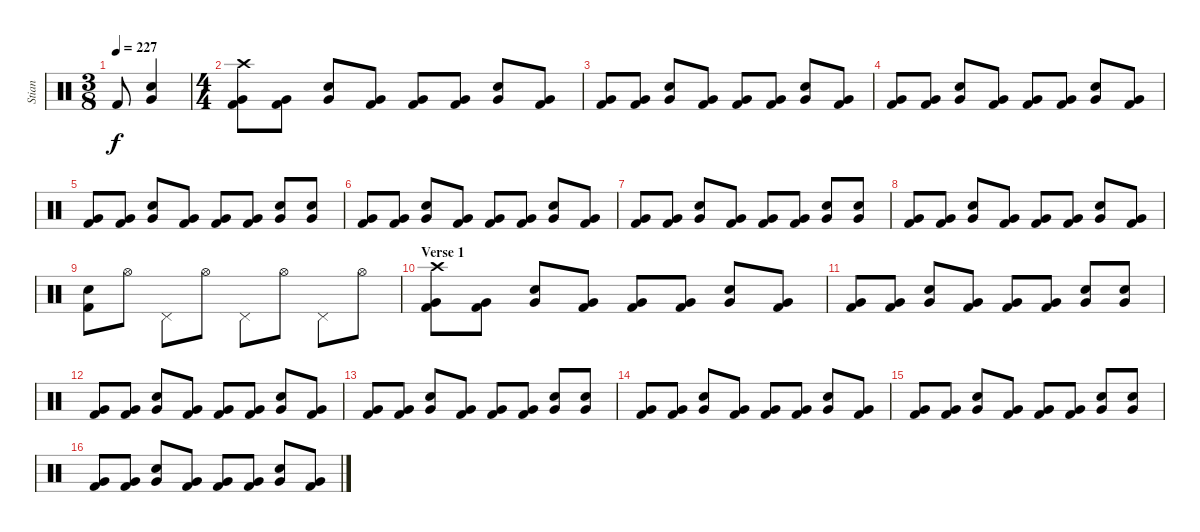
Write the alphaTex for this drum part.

\track ("Stian" "Stian") {instrument percussion}
\staff {score}
\articulation defaults
\ts (3 8)
\tempo 227
\clef neutral
\ks c "Kick (hit) 2".8{dy f}
("Very Low Tom (hit)" "Electric Snare (hit)").4 |
\ts (4 4)
("Very Low Tom (hit)" "Crash high (hit)" "Kick (hit) 2").8 ("Very Low Tom (hit)" "Kick (hit) 2").8 ("Very Low Tom (hit)" "Electric Snare (hit)").8 ("Very Low Tom (hit)" "Kick (hit) 2").8 ("Very Low Tom (hit)" "Kick (hit) 2").8 ("Very Low Tom (hit)" "Kick (hit) 2").8 ("Very Low Tom (hit)" "Electric Snare (hit)").8 ("Very Low Tom (hit)" "Kick (hit) 2").8 |
("Very Low Tom (hit)" "Kick (hit) 2").8 ("Very Low Tom (hit)" "Kick (hit) 2").8 ("Very Low Tom (hit)" "Electric Snare (hit)").8 ("Very Low Tom (hit)" "Kick (hit) 2").8 ("Very Low Tom (hit)" "Kick (hit) 2").8 ("Very Low Tom (hit)" "Kick (hit) 2").8 ("Very Low Tom (hit)" "Electric Snare (hit)").8 ("Very Low Tom (hit)" "Kick (hit) 2").8 |
("Very Low Tom (hit)" "Kick (hit) 2").8 ("Very Low Tom (hit)" "Kick (hit) 2").8 ("Very Low Tom (hit)" "Electric Snare (hit)").8 ("Very Low Tom (hit)" "Kick (hit) 2").8 ("Very Low Tom (hit)" "Kick (hit) 2").8 ("Very Low Tom (hit)" "Kick (hit) 2").8 ("Very Low Tom (hit)" "Electric Snare (hit)").8 ("Very Low Tom (hit)" "Kick (hit) 2").8 |
("Very Low Tom (hit)" "Kick (hit) 2").8 ("Very Low Tom (hit)" "Kick (hit) 2").8 ("Very Low Tom (hit)" "Electric Snare (hit)").8 ("Very Low Tom (hit)" "Kick (hit) 2").8 ("Very Low Tom (hit)" "Kick (hit) 2").8 ("Very Low Tom (hit)" "Kick (hit) 2").8 ("Very Low Tom (hit)" "Electric Snare (hit)").8 ("Very Low Tom (hit)" "Electric Snare (hit)").8 |
("Very Low Tom (hit)" "Kick (hit) 2").8 ("Very Low Tom (hit)" "Kick (hit) 2").8 ("Very Low Tom (hit)" "Electric Snare (hit)").8 ("Very Low Tom (hit)" "Kick (hit) 2").8 ("Very Low Tom (hit)" "Kick (hit) 2").8 ("Very Low Tom (hit)" "Kick (hit) 2").8 ("Very Low Tom (hit)" "Electric Snare (hit)").8 ("Very Low Tom (hit)" "Kick (hit) 2").8 |
("Very Low Tom (hit)" "Kick (hit) 2").8 ("Very Low Tom (hit)" "Kick (hit) 2").8 ("Very Low Tom (hit)" "Electric Snare (hit)").8 ("Very Low Tom (hit)" "Kick (hit) 2").8 ("Very Low Tom (hit)" "Kick (hit) 2").8 ("Very Low Tom (hit)" "Kick (hit) 2").8 ("Very Low Tom (hit)" "Electric Snare (hit)").8 ("Very Low Tom (hit)" "Electric Snare (hit)").8 |
("Very Low Tom (hit)" "Kick (hit) 2").8 ("Very Low Tom (hit)" "Kick (hit) 2").8 ("Very Low Tom (hit)" "Electric Snare (hit)").8 ("Very Low Tom (hit)" "Kick (hit) 2").8 ("Very Low Tom (hit)" "Kick (hit) 2").8 ("Very Low Tom (hit)" "Kick (hit) 2").8 ("Very Low Tom (hit)" "Electric Snare (hit)").8 ("Very Low Tom (hit)" "Kick (hit) 2").8 |
("Electric Snare (hit)" "Kick (hit) 2").8 "Hi-Hat (open)".8 "Pedal Hi-Hat (hit)".8 "Hi-Hat (open)".8 "Pedal Hi-Hat (hit)".8 "Hi-Hat (open)".8 "Pedal Hi-Hat (hit)".8 "Hi-Hat (open)".8 |
\section ("" "Verse 1")
("Very Low Tom (hit)" "Crash high (hit)" "Kick (hit) 2").8 ("Very Low Tom (hit)" "Kick (hit) 2").8 ("Very Low Tom (hit)" "Electric Snare (hit)").8 ("Very Low Tom (hit)" "Kick (hit) 2").8 ("Very Low Tom (hit)" "Kick (hit) 2").8 ("Very Low Tom (hit)" "Kick (hit) 2").8 ("Very Low Tom (hit)" "Electric Snare (hit)").8 ("Very Low Tom (hit)" "Kick (hit) 2").8 |
("Very Low Tom (hit)" "Kick (hit) 2").8 ("Very Low Tom (hit)" "Kick (hit) 2").8 ("Very Low Tom (hit)" "Electric Snare (hit)").8 ("Very Low Tom (hit)" "Kick (hit) 2").8 ("Very Low Tom (hit)" "Kick (hit) 2").8 ("Very Low Tom (hit)" "Kick (hit) 2").8 ("Very Low Tom (hit)" "Electric Snare (hit)").8 ("Very Low Tom (hit)" "Electric Snare (hit)").8 |
("Very Low Tom (hit)" "Kick (hit) 2").8 ("Very Low Tom (hit)" "Kick (hit) 2").8 ("Very Low Tom (hit)" "Electric Snare (hit)").8 ("Very Low Tom (hit)" "Kick (hit) 2").8 ("Very Low Tom (hit)" "Kick (hit) 2").8 ("Very Low Tom (hit)" "Kick (hit) 2").8 ("Very Low Tom (hit)" "Electric Snare (hit)").8 ("Very Low Tom (hit)" "Kick (hit) 2").8 |
("Very Low Tom (hit)" "Kick (hit) 2").8 ("Very Low Tom (hit)" "Kick (hit) 2").8 ("Very Low Tom (hit)" "Electric Snare (hit)").8 ("Very Low Tom (hit)" "Kick (hit) 2").8 ("Very Low Tom (hit)" "Kick (hit) 2").8 ("Very Low Tom (hit)" "Kick (hit) 2").8 ("Very Low Tom (hit)" "Electric Snare (hit)").8 ("Very Low Tom (hit)" "Electric Snare (hit)").8 |
("Very Low Tom (hit)" "Kick (hit) 2").8 ("Very Low Tom (hit)" "Kick (hit) 2").8 ("Very Low Tom (hit)" "Electric Snare (hit)").8 ("Very Low Tom (hit)" "Kick (hit) 2").8 ("Very Low Tom (hit)" "Kick (hit) 2").8 ("Very Low Tom (hit)" "Kick (hit) 2").8 ("Very Low Tom (hit)" "Electric Snare (hit)").8 ("Very Low Tom (hit)" "Kick (hit) 2").8 |
("Very Low Tom (hit)" "Kick (hit) 2").8 ("Very Low Tom (hit)" "Kick (hit) 2").8 ("Very Low Tom (hit)" "Electric Snare (hit)").8 ("Very Low Tom (hit)" "Kick (hit) 2").8 ("Very Low Tom (hit)" "Kick (hit) 2").8 ("Very Low Tom (hit)" "Kick (hit) 2").8 ("Very Low Tom (hit)" "Electric Snare (hit)").8 ("Very Low Tom (hit)" "Electric Snare (hit)").8 |
("Very Low Tom (hit)" "Kick (hit) 2").8 ("Very Low Tom (hit)" "Kick (hit) 2").8 ("Very Low Tom (hit)" "Electric Snare (hit)").8 ("Very Low Tom (hit)" "Kick (hit) 2").8 ("Very Low Tom (hit)" "Kick (hit) 2").8 ("Very Low Tom (hit)" "Kick (hit) 2").8 ("Very Low Tom (hit)" "Electric Snare (hit)").8 ("Very Low Tom (hit)" "Kick (hit) 2").8
